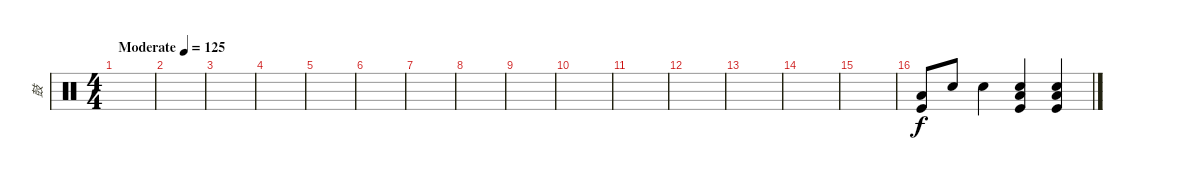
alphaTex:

\track ("鼓" "鼓") {instrument percussion}
\staff {score}
\articulation defaults
\ts (4 4)
\tempo (125 "Moderate")
\clef neutral
\ks c
|
|
|
|
|
|
|
|
|
|
|
|
|
|
|
("Kick (hit)" "Low Tom (hit)").8 "Snare (hit) 2".8 "Snare (hit) 2".4 ("Low Tom (hit)" "Kick (hit)" "Snare (hit) 2").4 ("Kick (hit)" "Low Floor Tom (hit)" "Snare (hit) 2").4
